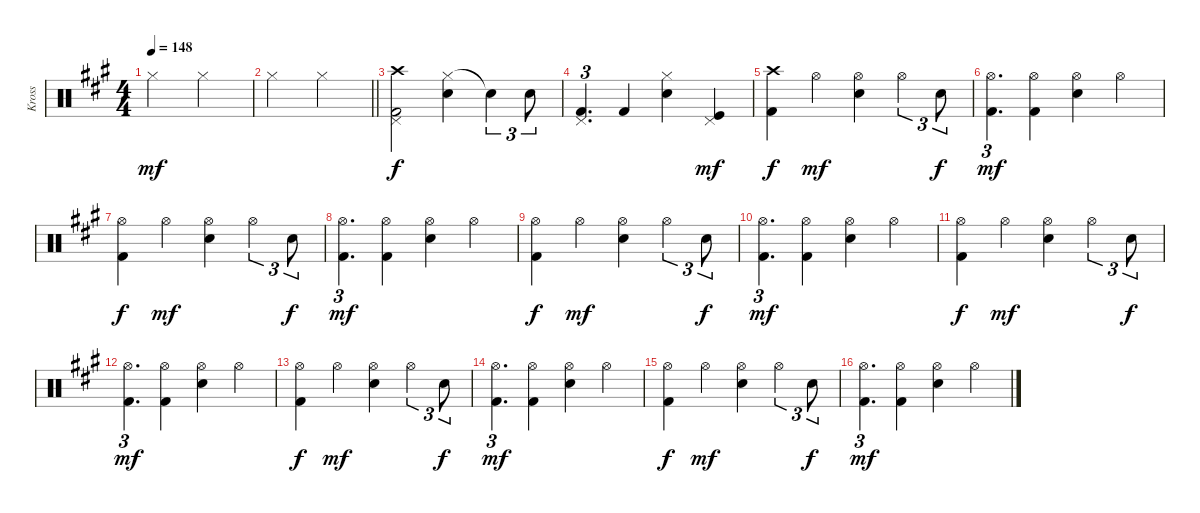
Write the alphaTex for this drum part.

\track ("Kross" "Kross") {instrument percussion}
\staff {score}
\articulation defaults
\ts (4 4)
\tempo 148
\clef neutral
\ks a "Hi-Hat (closed)".2{dy mf} "Hi-Hat (closed)".2
|
\barLineRight lightlight "Hi-Hat (closed)".2 "Hi-Hat (closed)".2
|
("Crash high (hit)" "Pedal Hi-Hat (hit)" "Kick (hit) 2").2{dy f} ("Hi-Hat (closed)" "Electric Snare (hit)").4 "Electric Snare (hit)"{t}.4{tu (3 2)} "Electric Snare (hit)".8{tu (3 2)} |
("Pedal Hi-Hat (hit)" "Kick (hit) 2").4{d tu (3 2)} "Kick (hit) 2".4 ("Hi-Hat (closed)" "Electric Snare (hit)").4 ("Pedal Hi-Hat (hit)" "Kick (hit)").4{dy mf} |
("Crash high (hit)" "Kick (hit) 2").4{dy f} "Hi-Hat (open)".4{dy mf} ("Hi-Hat (open)" "Electric Snare (hit)").4 "Hi-Hat (open)".4{tu (3 2)} "Electric Snare (hit)".8{tu (3 2) dy f} |
("Hi-Hat (open)" "Kick (hit) 2").4{d tu (3 2) dy mf} ("Hi-Hat (open)" "Kick (hit) 2").4 ("Hi-Hat (open)" "Electric Snare (hit)").4 "Hi-Hat (open)".4 |
("Hi-Hat (open)" "Kick (hit) 2").4{dy f} "Hi-Hat (open)".4{dy mf} ("Hi-Hat (open)" "Electric Snare (hit)").4 "Hi-Hat (open)".4{tu (3 2)} "Electric Snare (hit)".8{tu (3 2) dy f} |
("Hi-Hat (open)" "Kick (hit) 2").4{d tu (3 2) dy mf} ("Hi-Hat (open)" "Kick (hit) 2").4 ("Hi-Hat (open)" "Electric Snare (hit)").4 "Hi-Hat (open)".4 |
("Hi-Hat (open)" "Kick (hit) 2").4{dy f} "Hi-Hat (open)".4{dy mf} ("Hi-Hat (open)" "Electric Snare (hit)").4 "Hi-Hat (open)".4{tu (3 2)} "Electric Snare (hit)".8{tu (3 2) dy f} |
("Hi-Hat (open)" "Kick (hit) 2").4{d tu (3 2) dy mf} ("Hi-Hat (open)" "Kick (hit) 2").4 ("Hi-Hat (open)" "Electric Snare (hit)").4 "Hi-Hat (open)".4 |
("Hi-Hat (open)" "Kick (hit) 2").4{dy f} "Hi-Hat (open)".4{dy mf} ("Hi-Hat (open)" "Electric Snare (hit)").4 "Hi-Hat (open)".4{tu (3 2)} "Electric Snare (hit)".8{tu (3 2) dy f} |
("Hi-Hat (open)" "Kick (hit) 2").4{d tu (3 2) dy mf} ("Hi-Hat (open)" "Kick (hit) 2").4 ("Hi-Hat (open)" "Electric Snare (hit)").4 "Hi-Hat (open)".4 |
("Hi-Hat (open)" "Kick (hit) 2").4{dy f} "Hi-Hat (open)".4{dy mf} ("Hi-Hat (open)" "Electric Snare (hit)").4 "Hi-Hat (open)".4{tu (3 2)} "Electric Snare (hit)".8{tu (3 2) dy f} |
("Hi-Hat (open)" "Kick (hit) 2").4{d tu (3 2) dy mf} ("Hi-Hat (open)" "Kick (hit) 2").4 ("Hi-Hat (open)" "Electric Snare (hit)").4 "Hi-Hat (open)".4 |
("Hi-Hat (open)" "Kick (hit) 2").4{dy f} "Hi-Hat (open)".4{dy mf} ("Hi-Hat (open)" "Electric Snare (hit)").4 "Hi-Hat (open)".4{tu (3 2)} "Electric Snare (hit)".8{tu (3 2) dy f} |
("Hi-Hat (open)" "Kick (hit) 2").4{d tu (3 2) dy mf} ("Hi-Hat (open)" "Kick (hit) 2").4 ("Hi-Hat (open)" "Electric Snare (hit)").4 "Hi-Hat (open)".4
